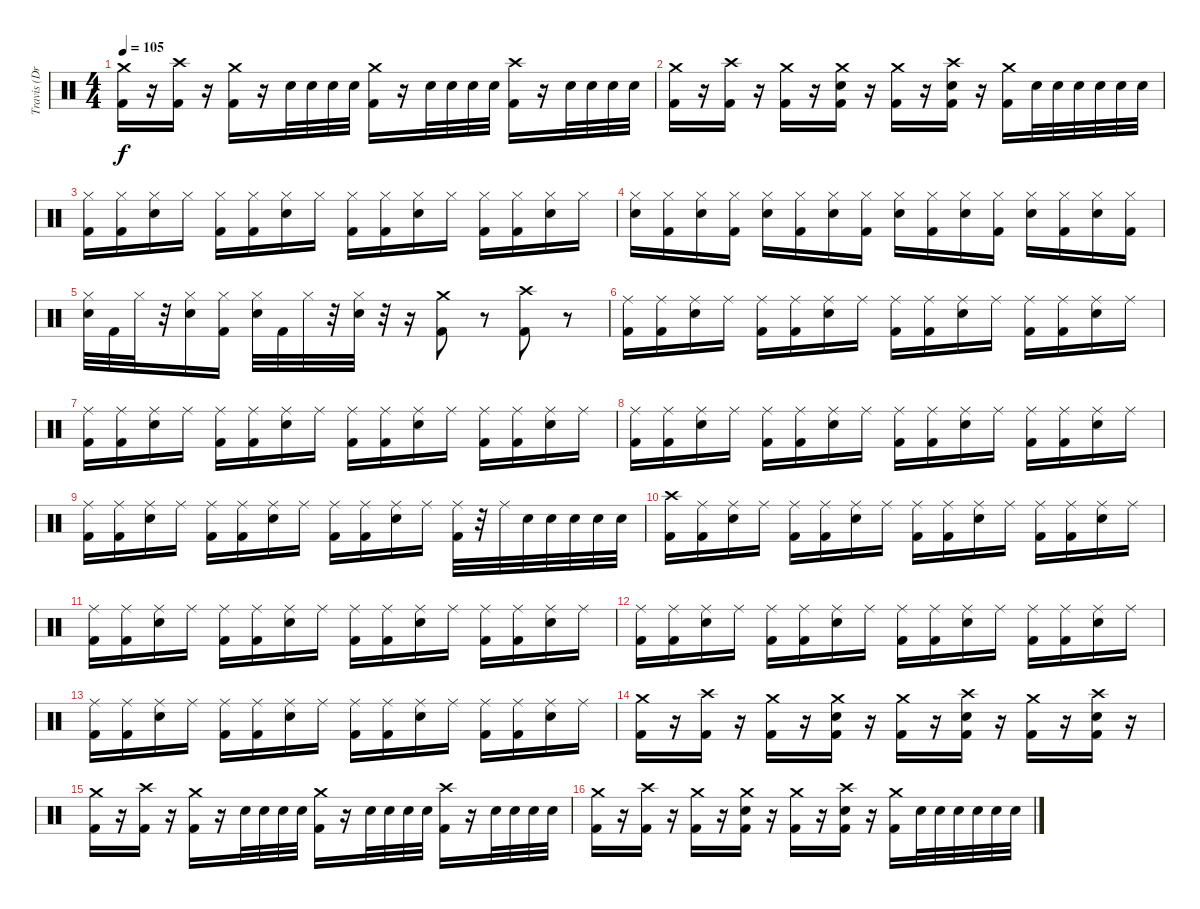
\track ("Travis (Drums)" "Travis (Dr") {instrument percussion}
\staff {score}
\articulation defaults
\ts (4 4)
\tempo 105
\clef neutral
\ks c
("Crash medium (hit)" "Kick (hit) 2").16{dy f} r.16 ("Crash high (hit)" "Kick (hit) 2").16 r.16 ("Crash medium (hit)" "Kick (hit) 2").16 r.16 "Electric Snare (hit)".32 "Electric Snare (hit)".32 "Electric Snare (hit)".32 "Electric Snare (hit)".32 ("Kick (hit) 2" "Crash medium (hit)").16 r.16 "Electric Snare (hit)".32 "Electric Snare (hit)".32 "Electric Snare (hit)".32 "Electric Snare (hit)".32 ("Kick (hit) 2" "Crash high (hit)").16 r.16 "Electric Snare (hit)".32 "Electric Snare (hit)".32 "Electric Snare (hit)".32 "Electric Snare (hit)".32 |
("Crash medium (hit)" "Kick (hit) 2").16 r.16 ("Crash high (hit)" "Kick (hit) 2").16 r.16 ("Crash medium (hit)" "Kick (hit) 2").16 r.16 ("Electric Snare (hit)" "Kick (hit) 2" "Crash medium (hit)").16 r.16 ("Crash medium (hit)" "Kick (hit) 2").16 r.16 ("Electric Snare (hit)" "Kick (hit) 2" "Crash high (hit)").16 r.16 ("Crash medium (hit)" "Kick (hit) 2").16 "Electric Snare (hit)".32 "Electric Snare (hit)".32 "Electric Snare (hit)".32 "Electric Snare (hit)".32 "Electric Snare (hit)".32 "Electric Snare (hit)".32 |
("Hi-Hat (closed)" "Kick (hit) 2").16 ("Hi-Hat (closed)" "Kick (hit) 2").16 ("Hi-Hat (closed)" "Electric Snare (hit)").16 "Hi-Hat (closed)".16 ("Hi-Hat (closed)" "Kick (hit) 2").16 ("Hi-Hat (closed)" "Kick (hit) 2").16 ("Hi-Hat (closed)" "Electric Snare (hit)").16 "Hi-Hat (closed)".16 ("Hi-Hat (closed)" "Kick (hit) 2").16 ("Hi-Hat (closed)" "Kick (hit) 2").16 ("Hi-Hat (closed)" "Electric Snare (hit)").16 "Hi-Hat (closed)".16 ("Hi-Hat (closed)" "Kick (hit) 2").16 ("Hi-Hat (closed)" "Kick (hit) 2").16 ("Hi-Hat (closed)" "Electric Snare (hit)").16 "Hi-Hat (closed)".16 |
("Hi-Hat (closed)" "Electric Snare (hit)").16 ("Hi-Hat (closed)" "Kick (hit) 2").16 ("Hi-Hat (closed)" "Electric Snare (hit)").16 ("Hi-Hat (closed)" "Kick (hit) 2").16 ("Hi-Hat (closed)" "Electric Snare (hit)").16 ("Hi-Hat (closed)" "Kick (hit) 2").16 ("Hi-Hat (closed)" "Electric Snare (hit)").16 ("Hi-Hat (closed)" "Kick (hit) 2").16 ("Hi-Hat (closed)" "Electric Snare (hit)").16 ("Hi-Hat (closed)" "Kick (hit) 2").16 ("Hi-Hat (closed)" "Electric Snare (hit)").16 ("Hi-Hat (closed)" "Kick (hit) 2").16 ("Hi-Hat (closed)" "Electric Snare (hit)").16 ("Hi-Hat (closed)" "Kick (hit) 2").16 ("Hi-Hat (closed)" "Electric Snare (hit)").16 ("Hi-Hat (closed)" "Kick (hit) 2").16 |
("Hi-Hat (closed)" "Electric Snare (hit)").32 "Kick (hit) 2".32 "Hi-Hat (closed)".32 r.32 ("Hi-Hat (closed)" "Electric Snare (hit)").16 ("Hi-Hat (closed)" "Kick (hit) 2").16 ("Hi-Hat (closed)" "Electric Snare (hit)").32 "Kick (hit) 2".32 "Hi-Hat (closed)".32 r.32 ("Hi-Hat (closed)" "Electric Snare (hit)").32 r.32 r.16 ("Crash medium (hit)" "Kick (hit) 2").8 r.8 ("Crash high (hit)" "Kick (hit) 2").8 r.8 |
("Ride (middle)" "Kick (hit) 2").16 ("Ride (middle)" "Kick (hit) 2").16 ("Ride (middle)" "Electric Snare (hit)").16 "Ride (middle)".16 ("Ride (middle)" "Kick (hit) 2").16 ("Ride (middle)" "Kick (hit) 2").16 ("Ride (middle)" "Electric Snare (hit)").16 "Ride (middle)".16 ("Ride (middle)" "Kick (hit) 2").16 ("Ride (middle)" "Kick (hit) 2").16 ("Ride (middle)" "Electric Snare (hit)").16 "Ride (middle)".16 ("Ride (middle)" "Kick (hit) 2").16 ("Ride (middle)" "Kick (hit) 2").16 ("Ride (middle)" "Electric Snare (hit)").16 "Ride (middle)".16 |
("Ride (middle)" "Kick (hit) 2").16 ("Ride (middle)" "Kick (hit) 2").16 ("Ride (middle)" "Electric Snare (hit)").16 "Ride (middle)".16 ("Ride (middle)" "Kick (hit) 2").16 ("Ride (middle)" "Kick (hit) 2").16 ("Ride (middle)" "Electric Snare (hit)").16 "Ride (middle)".16 ("Ride (middle)" "Kick (hit) 2").16 ("Ride (middle)" "Kick (hit) 2").16 ("Ride (middle)" "Electric Snare (hit)").16 "Ride (middle)".16 ("Ride (middle)" "Kick (hit) 2").16 ("Ride (middle)" "Kick (hit) 2").16 ("Ride (middle)" "Electric Snare (hit)").16 "Ride (middle)".16 |
("Ride (middle)" "Kick (hit) 2").16 ("Ride (middle)" "Kick (hit) 2").16 ("Ride (middle)" "Electric Snare (hit)").16 "Ride (middle)".16 ("Ride (middle)" "Kick (hit) 2").16 ("Ride (middle)" "Kick (hit) 2").16 ("Ride (middle)" "Electric Snare (hit)").16 "Ride (middle)".16 ("Ride (middle)" "Kick (hit) 2").16 ("Ride (middle)" "Kick (hit) 2").16 ("Ride (middle)" "Electric Snare (hit)").16 "Ride (middle)".16 ("Ride (middle)" "Kick (hit) 2").16 ("Ride (middle)" "Kick (hit) 2").16 ("Ride (middle)" "Electric Snare (hit)").16 "Ride (middle)".16 |
("Ride (middle)" "Kick (hit) 2").16 ("Ride (middle)" "Kick (hit) 2").16 ("Ride (middle)" "Electric Snare (hit)").16 "Ride (middle)".16 ("Ride (middle)" "Kick (hit) 2").16 ("Ride (middle)" "Kick (hit) 2").16 ("Ride (middle)" "Electric Snare (hit)").16 "Ride (middle)".16 ("Ride (middle)" "Kick (hit) 2").16 ("Ride (middle)" "Kick (hit) 2").16 ("Ride (middle)" "Electric Snare (hit)").16 "Ride (middle)".16 ("Ride (middle)" "Kick (hit) 2").32 r.32 "Ride (middle)".32 "Electric Snare (hit)".32 "Electric Snare (hit)".32 "Electric Snare (hit)".32 "Electric Snare (hit)".32 "Electric Snare (hit)".32 |
("Crash high (hit)" "Kick (hit) 2").16 ("Ride (middle)" "Kick (hit) 2").16 ("Ride (middle)" "Electric Snare (hit)").16 "Ride (middle)".16 ("Ride (middle)" "Kick (hit) 2").16 ("Ride (middle)" "Kick (hit) 2").16 ("Ride (middle)" "Electric Snare (hit)").16 "Ride (middle)".16 ("Ride (middle)" "Kick (hit) 2").16 ("Ride (middle)" "Kick (hit) 2").16 ("Ride (middle)" "Electric Snare (hit)").16 "Ride (middle)".16 ("Ride (middle)" "Kick (hit) 2").16 ("Ride (middle)" "Kick (hit) 2").16 ("Ride (middle)" "Electric Snare (hit)").16 "Ride (middle)".16 |
("Ride (middle)" "Kick (hit) 2").16 ("Ride (middle)" "Kick (hit) 2").16 ("Ride (middle)" "Electric Snare (hit)").16 "Ride (middle)".16 ("Ride (middle)" "Kick (hit) 2").16 ("Ride (middle)" "Kick (hit) 2").16 ("Ride (middle)" "Electric Snare (hit)").16 "Ride (middle)".16 ("Ride (middle)" "Kick (hit) 2").16 ("Ride (middle)" "Kick (hit) 2").16 ("Ride (middle)" "Electric Snare (hit)").16 "Ride (middle)".16 ("Ride (middle)" "Kick (hit) 2").16 ("Ride (middle)" "Kick (hit) 2").16 ("Ride (middle)" "Electric Snare (hit)").16 "Ride (middle)".16 |
("Ride (middle)" "Kick (hit) 2").16 ("Ride (middle)" "Kick (hit) 2").16 ("Ride (middle)" "Electric Snare (hit)").16 "Ride (middle)".16 ("Ride (middle)" "Kick (hit) 2").16 ("Ride (middle)" "Kick (hit) 2").16 ("Ride (middle)" "Electric Snare (hit)").16 "Ride (middle)".16 ("Ride (middle)" "Kick (hit) 2").16 ("Ride (middle)" "Kick (hit) 2").16 ("Ride (middle)" "Electric Snare (hit)").16 "Ride (middle)".16 ("Ride (middle)" "Kick (hit) 2").16 ("Ride (middle)" "Kick (hit) 2").16 ("Ride (middle)" "Electric Snare (hit)").16 "Ride (middle)".16 |
("Ride (middle)" "Kick (hit) 2").16 ("Ride (middle)" "Kick (hit) 2").16 ("Ride (middle)" "Electric Snare (hit)").16 "Ride (middle)".16 ("Ride (middle)" "Kick (hit) 2").16 ("Ride (middle)" "Kick (hit) 2").16 ("Ride (middle)" "Electric Snare (hit)").16 "Ride (middle)".16 ("Ride (middle)" "Kick (hit) 2").16 ("Ride (middle)" "Kick (hit) 2").16 ("Ride (middle)" "Electric Snare (hit)").16 "Ride (middle)".16 ("Ride (middle)" "Kick (hit) 2").16 ("Ride (middle)" "Kick (hit) 2").16 ("Ride (middle)" "Electric Snare (hit)").16 "Ride (middle)".16 |
("Crash medium (hit)" "Kick (hit) 2").16 r.16 ("Crash high (hit)" "Kick (hit) 2").16 r.16 ("Crash medium (hit)" "Kick (hit) 2").16 r.16 ("Electric Snare (hit)" "Kick (hit) 2" "Crash medium (hit)").16 r.16 ("Crash medium (hit)" "Kick (hit) 2").16 r.16 ("Electric Snare (hit)" "Kick (hit) 2" "Crash high (hit)").16 r.16 ("Crash medium (hit)" "Kick (hit) 2").16 r.16 ("Electric Snare (hit)" "Kick (hit) 2" "Crash high (hit)").16 r.16 |
("Crash medium (hit)" "Kick (hit) 2").16 r.16 ("Crash high (hit)" "Kick (hit) 2").16 r.16 ("Crash medium (hit)" "Kick (hit) 2").16 r.16 "Electric Snare (hit)".32 "Electric Snare (hit)".32 "Electric Snare (hit)".32 "Electric Snare (hit)".32 ("Kick (hit) 2" "Crash medium (hit)").16 r.16 "Electric Snare (hit)".32 "Electric Snare (hit)".32 "Electric Snare (hit)".32 "Electric Snare (hit)".32 ("Kick (hit) 2" "Crash high (hit)").16 r.16 "Electric Snare (hit)".32 "Electric Snare (hit)".32 "Electric Snare (hit)".32 "Electric Snare (hit)".32 |
("Crash medium (hit)" "Kick (hit) 2").16 r.16 ("Crash high (hit)" "Kick (hit) 2").16 r.16 ("Crash medium (hit)" "Kick (hit) 2").16 r.16 ("Electric Snare (hit)" "Kick (hit) 2" "Crash medium (hit)").16 r.16 ("Crash medium (hit)" "Kick (hit) 2").16 r.16 ("Electric Snare (hit)" "Kick (hit) 2" "Crash high (hit)").16 r.16 ("Crash medium (hit)" "Kick (hit) 2").16 "Electric Snare (hit)".32 "Electric Snare (hit)".32 "Electric Snare (hit)".32 "Electric Snare (hit)".32 "Electric Snare (hit)".32 "Electric Snare (hit)".32
